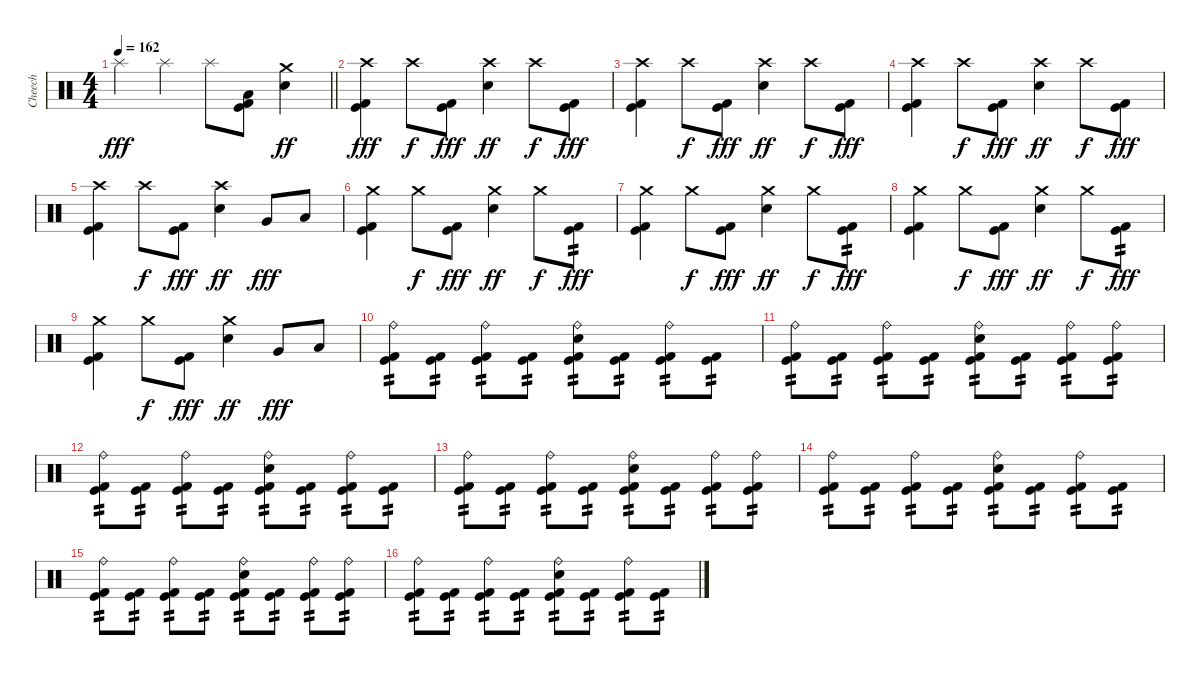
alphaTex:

\track ("Cheech" "Cheech") {instrument percussion}
\staff {score}
\articulation defaults
\ts (4 4)
\tempo 162
\clef neutral
\barLineRight lightlight
\ks c "Splash (hit)".4{dy fff} "Splash (hit)".4 "Splash (hit)".8
("Kick (hit) 2" "Low Floor Tom (hit)" "Kick (hit)").8 ("Crash medium (hit)" "Electric Snare (hit)").4{dy ff} |
("Crash high (hit)" "Kick (hit) 2" "Kick (hit)").4{dy fff} "Crash high (hit)".8{dy f} ("Kick (hit) 2" "Kick (hit)").8{dy fff} ("Crash high (hit)" "Electric Snare (hit)").4{dy ff} "Crash high (hit)".8{dy f} ("Kick (hit) 2" "Kick (hit)").8{dy fff} |
("Crash high (hit)" "Kick (hit) 2" "Kick (hit)").4 "Crash high (hit)".8{dy f} ("Kick (hit) 2" "Kick (hit)").8{dy fff} ("Crash high (hit)" "Electric Snare (hit)").4{dy ff} "Crash high (hit)".8{dy f} ("Kick (hit) 2" "Kick (hit)").8{dy fff} |
("Crash high (hit)" "Kick (hit) 2" "Kick (hit)").4 "Crash high (hit)".8{dy f} ("Kick (hit) 2" "Kick (hit)").8{dy fff} ("Crash high (hit)" "Electric Snare (hit)").4{dy ff} "Crash high (hit)".8{dy f} ("Kick (hit) 2" "Kick (hit)").8{dy fff} |
("Crash high (hit)" "Kick (hit) 2" "Kick (hit)").4 "Crash high (hit)".8{dy f} ("Kick (hit) 2" "Kick (hit)").8{dy fff} ("Crash high (hit)" "Electric Snare (hit)").4{dy ff} "Very Low Tom (hit)".8{dy fff} "Low Floor Tom (hit)".8 |
("Crash medium (hit)" "Kick (hit) 2" "Kick (hit)").4 "Crash medium (hit)".8{dy f} ("Kick (hit) 2" "Kick (hit)").8{dy fff} ("Crash medium (hit)" "Electric Snare (hit)").4{dy ff} "Crash medium (hit)".8{dy f} ("Kick (hit) 2" "Kick (hit)").8{tp 2 dy fff} |
("Crash medium (hit)" "Kick (hit) 2" "Kick (hit)").4 "Crash medium (hit)".8{dy f} ("Kick (hit) 2" "Kick (hit)").8{dy fff} ("Crash medium (hit)" "Electric Snare (hit)").4{dy ff} "Crash medium (hit)".8{dy f} ("Kick (hit) 2" "Kick (hit)").8{tp 2 dy fff} |
("Crash medium (hit)" "Kick (hit) 2" "Kick (hit)").4 "Crash medium (hit)".8{dy f} ("Kick (hit) 2" "Kick (hit)").8{dy fff} ("Crash medium (hit)" "Electric Snare (hit)").4{dy ff} "Crash medium (hit)".8{dy f} ("Kick (hit) 2" "Kick (hit)").8{tp 2 dy fff} |
("Crash medium (hit)" "Kick (hit) 2" "Kick (hit)").4 "Crash medium (hit)".8{dy f} ("Kick (hit) 2" "Kick (hit)").8{dy fff} ("Crash medium (hit)" "Electric Snare (hit)").4{dy ff} "Very Low Tom (hit)".8{dy fff} "Low Floor Tom (hit)".8 |
("Ride (bell)" "Kick (hit) 2" "Kick (hit)").8{tp 2} ("Kick (hit) 2" "Kick (hit)").8{tp 2} ("Ride (bell)" "Kick (hit) 2" "Kick (hit)").8{tp 2} ("Kick (hit) 2" "Kick (hit)").8{tp 2} ("Ride (bell)" "Electric Snare (hit)" "Kick (hit) 2" "Kick (hit)").8{tp 2} ("Kick (hit) 2" "Kick (hit)").8{tp 2} ("Ride (bell)" "Kick (hit) 2" "Kick (hit)").8{tp 2} ("Kick (hit) 2" "Kick (hit)").8{tp 2} |
("Ride (bell)" "Kick (hit) 2" "Kick (hit)").8{tp 2} ("Kick (hit) 2" "Kick (hit)").8{tp 2} ("Ride (bell)" "Kick (hit) 2" "Kick (hit)").8{tp 2} ("Kick (hit) 2" "Kick (hit)").8{tp 2} ("Ride (bell)" "Electric Snare (hit)" "Kick (hit) 2" "Kick (hit)").8{tp 2} ("Kick (hit) 2" "Kick (hit)").8{tp 2} ("Ride (bell)" "Kick (hit) 2" "Kick (hit)").8{tp 2} ("Ride (bell)" "Kick (hit) 2" "Kick (hit)").8{tp 2} |
("Ride (bell)" "Kick (hit) 2" "Kick (hit)").8{tp 2} ("Kick (hit) 2" "Kick (hit)").8{tp 2} ("Ride (bell)" "Kick (hit) 2" "Kick (hit)").8{tp 2} ("Kick (hit) 2" "Kick (hit)").8{tp 2} ("Ride (bell)" "Electric Snare (hit)" "Kick (hit) 2" "Kick (hit)").8{tp 2} ("Kick (hit) 2" "Kick (hit)").8{tp 2} ("Ride (bell)" "Kick (hit) 2" "Kick (hit)").8{tp 2} ("Kick (hit) 2" "Kick (hit)").8{tp 2} |
("Ride (bell)" "Kick (hit) 2" "Kick (hit)").8{tp 2} ("Kick (hit) 2" "Kick (hit)").8{tp 2} ("Ride (bell)" "Kick (hit) 2" "Kick (hit)").8{tp 2} ("Kick (hit) 2" "Kick (hit)").8{tp 2} ("Ride (bell)" "Electric Snare (hit)" "Kick (hit) 2" "Kick (hit)").8{tp 2} ("Kick (hit) 2" "Kick (hit)").8{tp 2} ("Ride (bell)" "Kick (hit) 2" "Kick (hit)").8{tp 2} ("Ride (bell)" "Kick (hit) 2" "Kick (hit)").8{tp 2} |
("Ride (bell)" "Kick (hit) 2" "Kick (hit)").8{tp 2} ("Kick (hit) 2" "Kick (hit)").8{tp 2} ("Ride (bell)" "Kick (hit) 2" "Kick (hit)").8{tp 2} ("Kick (hit) 2" "Kick (hit)").8{tp 2} ("Ride (bell)" "Electric Snare (hit)" "Kick (hit) 2" "Kick (hit)").8{tp 2} ("Kick (hit) 2" "Kick (hit)").8{tp 2} ("Ride (bell)" "Kick (hit) 2" "Kick (hit)").8{tp 2} ("Kick (hit) 2" "Kick (hit)").8{tp 2} |
("Ride (bell)" "Kick (hit) 2" "Kick (hit)").8{tp 2} ("Kick (hit) 2" "Kick (hit)").8{tp 2} ("Ride (bell)" "Kick (hit) 2" "Kick (hit)").8{tp 2} ("Kick (hit) 2" "Kick (hit)").8{tp 2} ("Ride (bell)" "Electric Snare (hit)" "Kick (hit) 2" "Kick (hit)").8{tp 2} ("Kick (hit) 2" "Kick (hit)").8{tp 2} ("Ride (bell)" "Kick (hit) 2" "Kick (hit)").8{tp 2} ("Ride (bell)" "Kick (hit) 2" "Kick (hit)").8{tp 2} |
("Ride (bell)" "Kick (hit) 2" "Kick (hit)").8{tp 2} ("Kick (hit) 2" "Kick (hit)").8{tp 2} ("Ride (bell)" "Kick (hit) 2" "Kick (hit)").8{tp 2} ("Kick (hit) 2" "Kick (hit)").8{tp 2} ("Ride (bell)" "Electric Snare (hit)" "Kick (hit) 2" "Kick (hit)").8{tp 2} ("Kick (hit) 2" "Kick (hit)").8{tp 2} ("Ride (bell)" "Kick (hit) 2" "Kick (hit)").8{tp 2} ("Kick (hit) 2" "Kick (hit)").8{tp 2}
